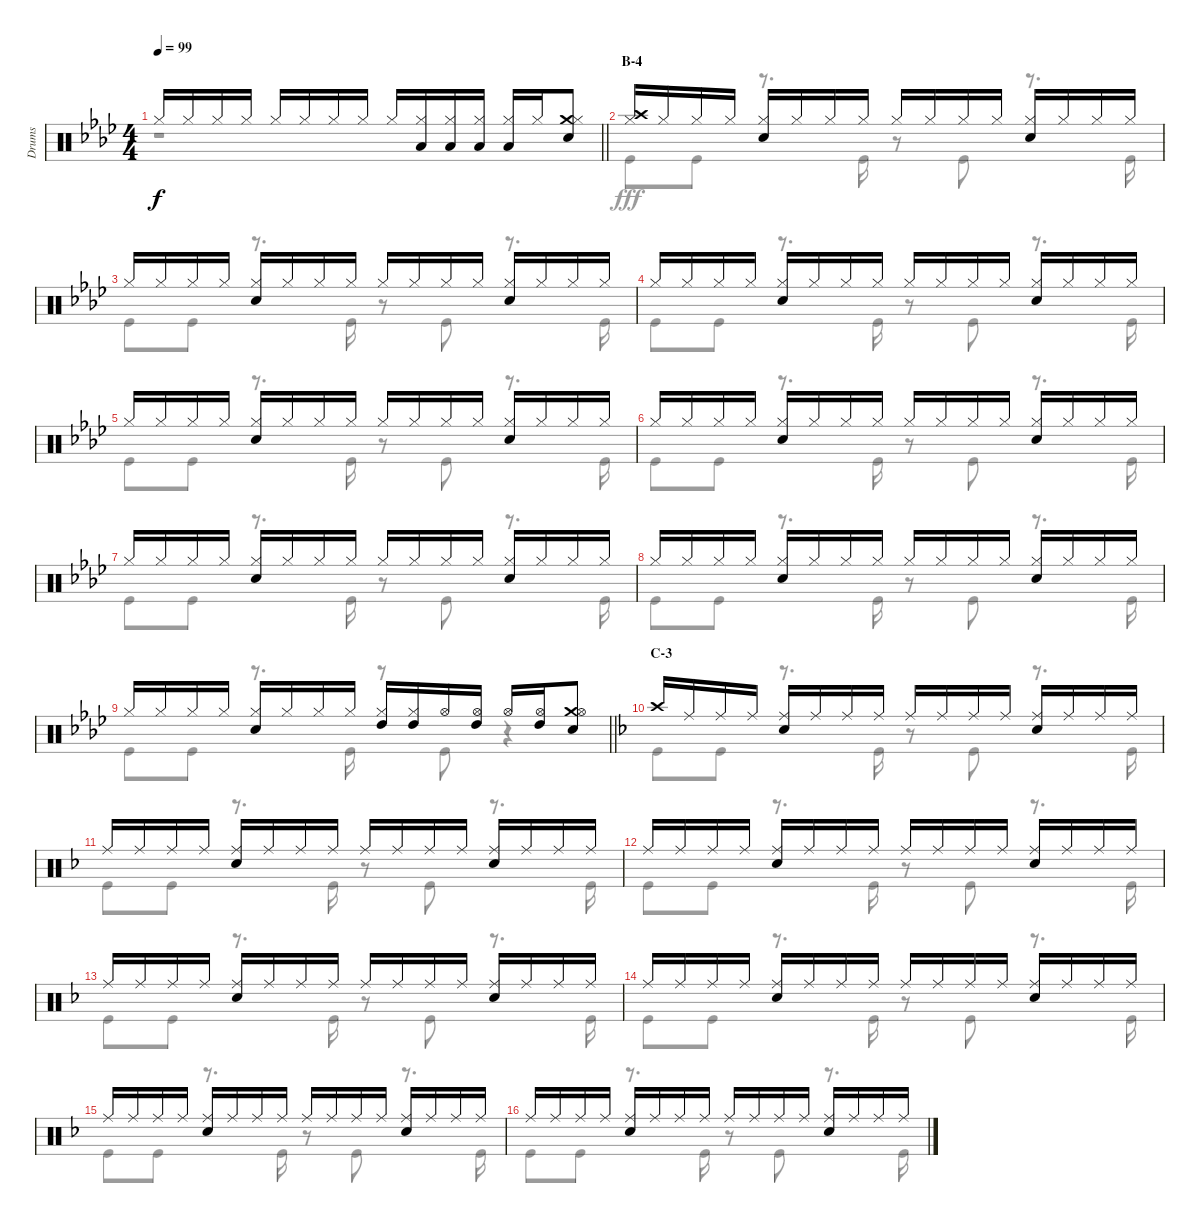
\track ("Drums" "Drums") {instrument percussion}
\staff {score}
\articulation defaults
\voice
\ts (4 4)
\tempo 99
\clef neutral
\barLineRight lightlight
\ks ab "Hi-Hat (closed)".16{dy f} "Hi-Hat (closed)".16 "Hi-Hat (closed)".16 "Hi-Hat (closed)".16 "Hi-Hat (closed)".16 "Hi-Hat (closed)".16 "Hi-Hat (closed)".16 "Hi-Hat (closed)".16 "Hi-Hat (closed)".16
("Hi-Hat (closed)" "Low Tom (hit)").16 ("Hi-Hat (closed)" "Low Tom (hit)").16 ("Hi-Hat (closed)" "Low Tom (hit)").16 ("Hi-Hat (closed)" "Low Tom (hit)").16 "Hi-Hat (closed)".16 ("Crash medium (hit)" "Hi-Hat (closed)" "Snare (hit) 2").8 |
\section ("" "B-4")
("Crash high (hit)" "Hi-Hat (closed)").16 "Hi-Hat (closed)".16 "Hi-Hat (closed)".16 "Hi-Hat (closed)".16 ("Hi-Hat (closed)" "Snare (hit) 2").16 "Hi-Hat (closed)".16 "Hi-Hat (closed)".16 "Hi-Hat (closed)".16 "Hi-Hat (closed)".16 "Hi-Hat (closed)".16 "Hi-Hat (closed)".16 "Hi-Hat (closed)".16 ("Hi-Hat (closed)" "Snare (hit) 2").16 "Hi-Hat (closed)".16 "Hi-Hat (closed)".16 "Hi-Hat (closed)".16 |
"Hi-Hat (closed)".16 "Hi-Hat (closed)".16 "Hi-Hat (closed)".16 "Hi-Hat (closed)".16 ("Hi-Hat (closed)" "Snare (hit) 2").16 "Hi-Hat (closed)".16 "Hi-Hat (closed)".16 "Hi-Hat (closed)".16 "Hi-Hat (closed)".16 "Hi-Hat (closed)".16 "Hi-Hat (closed)".16 "Hi-Hat (closed)".16 ("Hi-Hat (closed)" "Snare (hit) 2").16 "Hi-Hat (closed)".16 "Hi-Hat (closed)".16 "Hi-Hat (closed)".16 |
"Hi-Hat (closed)".16 "Hi-Hat (closed)".16 "Hi-Hat (closed)".16 "Hi-Hat (closed)".16 ("Hi-Hat (closed)" "Snare (hit) 2").16 "Hi-Hat (closed)".16 "Hi-Hat (closed)".16 "Hi-Hat (closed)".16 "Hi-Hat (closed)".16 "Hi-Hat (closed)".16 "Hi-Hat (closed)".16 "Hi-Hat (closed)".16 ("Hi-Hat (closed)" "Snare (hit) 2").16 "Hi-Hat (closed)".16 "Hi-Hat (closed)".16 "Hi-Hat (closed)".16 |
"Hi-Hat (closed)".16 "Hi-Hat (closed)".16 "Hi-Hat (closed)".16 "Hi-Hat (closed)".16 ("Hi-Hat (closed)" "Snare (hit) 2").16 "Hi-Hat (closed)".16 "Hi-Hat (closed)".16 "Hi-Hat (closed)".16 "Hi-Hat (closed)".16 "Hi-Hat (closed)".16 "Hi-Hat (closed)".16 "Hi-Hat (closed)".16 ("Hi-Hat (closed)" "Snare (hit) 2").16 "Hi-Hat (closed)".16 "Hi-Hat (closed)".16 "Hi-Hat (closed)".16 |
"Hi-Hat (closed)".16 "Hi-Hat (closed)".16 "Hi-Hat (closed)".16 "Hi-Hat (closed)".16 ("Hi-Hat (closed)" "Snare (hit) 2").16 "Hi-Hat (closed)".16 "Hi-Hat (closed)".16 "Hi-Hat (closed)".16 "Hi-Hat (closed)".16 "Hi-Hat (closed)".16 "Hi-Hat (closed)".16 "Hi-Hat (closed)".16 ("Hi-Hat (closed)" "Snare (hit) 2").16 "Hi-Hat (closed)".16 "Hi-Hat (closed)".16 "Hi-Hat (closed)".16 |
"Hi-Hat (closed)".16 "Hi-Hat (closed)".16 "Hi-Hat (closed)".16 "Hi-Hat (closed)".16 ("Hi-Hat (closed)" "Snare (hit) 2").16 "Hi-Hat (closed)".16 "Hi-Hat (closed)".16 "Hi-Hat (closed)".16 "Hi-Hat (closed)".16 "Hi-Hat (closed)".16 "Hi-Hat (closed)".16 "Hi-Hat (closed)".16 ("Hi-Hat (closed)" "Snare (hit) 2").16 "Hi-Hat (closed)".16 "Hi-Hat (closed)".16 "Hi-Hat (closed)".16 |
"Hi-Hat (closed)".16 "Hi-Hat (closed)".16 "Hi-Hat (closed)".16 "Hi-Hat (closed)".16 ("Hi-Hat (closed)" "Snare (hit) 2").16 "Hi-Hat (closed)".16 "Hi-Hat (closed)".16 "Hi-Hat (closed)".16 "Hi-Hat (closed)".16 "Hi-Hat (closed)".16 "Hi-Hat (closed)".16 "Hi-Hat (closed)".16 ("Hi-Hat (closed)" "Snare (hit) 2").16 "Hi-Hat (closed)".16 "Hi-Hat (closed)".16 "Hi-Hat (closed)".16 |
\barLineRight lightlight "Hi-Hat (closed)".16 "Hi-Hat (closed)".16 "Hi-Hat (closed)".16 "Hi-Hat (closed)".16
("Hi-Hat (closed)" "Snare (hit) 2").16 "Hi-Hat (closed)".16 "Hi-Hat (closed)".16 "Hi-Hat (closed)".16 ("Hi-Hat (closed)" "High Tom (hit)").16 ("Hi-Hat (closed)" "High Tom (hit)").16 "Hi-Hat (open)".16 ("Hi-Hat (open)" "High Tom (hit)").16 "Hi-Hat (open)".16 ("Hi-Hat (open)" "High Tom (hit)").16 ("Crash medium (hit)" "Hi-Hat (open)" "Snare (hit) 2").8 |
\section ("" "C-3")
\ks f "Crash high (hit)".16 "Ride (middle)".16 "Ride (middle)".16 "Ride (middle)".16
("Ride (middle)" "Snare (hit) 2").16 "Ride (middle)".16 "Ride (middle)".16 "Ride (middle)".16 "Ride (middle)".16 "Ride (middle)".16 "Ride (middle)".16 "Ride (middle)".16 ("Ride (middle)" "Snare (hit) 2").16 "Ride (middle)".16 "Ride (middle)".16 "Ride (middle)".16 |
"Ride (middle)".16 "Ride (middle)".16 "Ride (middle)".16 "Ride (middle)".16 ("Ride (middle)" "Snare (hit) 2").16 "Ride (middle)".16 "Ride (middle)".16 "Ride (middle)".16 "Ride (middle)".16 "Ride (middle)".16 "Ride (middle)".16 "Ride (middle)".16 ("Ride (middle)" "Snare (hit) 2").16 "Ride (middle)".16 "Ride (middle)".16 "Ride (middle)".16 |
"Ride (middle)".16 "Ride (middle)".16 "Ride (middle)".16 "Ride (middle)".16 ("Ride (middle)" "Snare (hit) 2").16 "Ride (middle)".16 "Ride (middle)".16 "Ride (middle)".16 "Ride (middle)".16 "Ride (middle)".16 "Ride (middle)".16 "Ride (middle)".16 ("Ride (middle)" "Snare (hit) 2").16 "Ride (middle)".16 "Ride (middle)".16 "Ride (middle)".16 |
"Ride (middle)".16 "Ride (middle)".16 "Ride (middle)".16 "Ride (middle)".16 ("Ride (middle)" "Snare (hit) 2").16 "Ride (middle)".16 "Ride (middle)".16 "Ride (middle)".16 "Ride (middle)".16 "Ride (middle)".16 "Ride (middle)".16 "Ride (middle)".16 ("Ride (middle)" "Snare (hit) 2").16 "Ride (middle)".16 "Ride (middle)".16 "Ride (middle)".16 |
"Ride (middle)".16 "Ride (middle)".16 "Ride (middle)".16 "Ride (middle)".16 ("Ride (middle)" "Snare (hit) 2").16 "Ride (middle)".16 "Ride (middle)".16 "Ride (middle)".16 "Ride (middle)".16 "Ride (middle)".16 "Ride (middle)".16 "Ride (middle)".16 ("Ride (middle)" "Snare (hit) 2").16 "Ride (middle)".16 "Ride (middle)".16 "Ride (middle)".16 |
"Ride (middle)".16 "Ride (middle)".16 "Ride (middle)".16 "Ride (middle)".16 ("Ride (middle)" "Snare (hit) 2").16 "Ride (middle)".16 "Ride (middle)".16 "Ride (middle)".16 "Ride (middle)".16 "Ride (middle)".16 "Ride (middle)".16 "Ride (middle)".16 ("Ride (middle)" "Snare (hit) 2").16 "Ride (middle)".16 "Ride (middle)".16 "Ride (middle)".16 |
"Ride (middle)".16 "Ride (middle)".16 "Ride (middle)".16 "Ride (middle)".16 ("Ride (middle)" "Snare (hit) 2").16 "Ride (middle)".16 "Ride (middle)".16 "Ride (middle)".16 "Ride (middle)".16 "Ride (middle)".16 "Ride (middle)".16 "Ride (middle)".16 ("Ride (middle)" "Snare (hit) 2").16 "Ride (middle)".16 "Ride (middle)".16 "Ride (middle)".16
\voice
\clef neutral
\ottava regular
\simile none
\barLineRight lightlight
\ks ab
r.1{dy fff} |
"Kick (hit)".8 "Kick (hit)".8 r.8{d} "Kick (hit)".16 r.8 "Kick (hit)".8 r.8{d} "Kick (hit)".16 |
"Kick (hit)".8 "Kick (hit)".8 r.8{d} "Kick (hit)".16 r.8 "Kick (hit)".8 r.8{d} "Kick (hit)".16 |
"Kick (hit)".8 "Kick (hit)".8 r.8{d} "Kick (hit)".16 r.8 "Kick (hit)".8 r.8{d} "Kick (hit)".16 |
"Kick (hit)".8 "Kick (hit)".8 r.8{d} "Kick (hit)".16 r.8 "Kick (hit)".8 r.8{d} "Kick (hit)".16 |
"Kick (hit)".8 "Kick (hit)".8 r.8{d} "Kick (hit)".16 r.8 "Kick (hit)".8 r.8{d} "Kick (hit)".16 |
"Kick (hit)".8 "Kick (hit)".8 r.8{d} "Kick (hit)".16 r.8 "Kick (hit)".8 r.8{d} "Kick (hit)".16 |
"Kick (hit)".8 "Kick (hit)".8 r.8{d} "Kick (hit)".16 r.8 "Kick (hit)".8 r.8{d} "Kick (hit)".16 |
\barLineRight lightlight "Kick (hit)".8 "Kick (hit)".8
r.8{d} "Kick (hit)".16 r.8 "Kick (hit)".8 r.4 |
\ks f "Kick (hit)".8 "Kick (hit)".8
r.8{d} "Kick (hit)".16 r.8 "Kick (hit)".8 r.8{d} "Kick (hit)".16 |
"Kick (hit)".8 "Kick (hit)".8 r.8{d} "Kick (hit)".16 r.8 "Kick (hit)".8 r.8{d} "Kick (hit)".16 |
"Kick (hit)".8 "Kick (hit)".8 r.8{d} "Kick (hit)".16 r.8 "Kick (hit)".8 r.8{d} "Kick (hit)".16 |
"Kick (hit)".8 "Kick (hit)".8 r.8{d} "Kick (hit)".16 r.8 "Kick (hit)".8 r.8{d} "Kick (hit)".16 |
"Kick (hit)".8 "Kick (hit)".8 r.8{d} "Kick (hit)".16 r.8 "Kick (hit)".8 r.8{d} "Kick (hit)".16 |
"Kick (hit)".8 "Kick (hit)".8 r.8{d} "Kick (hit)".16 r.8 "Kick (hit)".8 r.8{d} "Kick (hit)".16 |
"Kick (hit)".8 "Kick (hit)".8 r.8{d} "Kick (hit)".16 r.8 "Kick (hit)".8 r.8{d} "Kick (hit)".16
